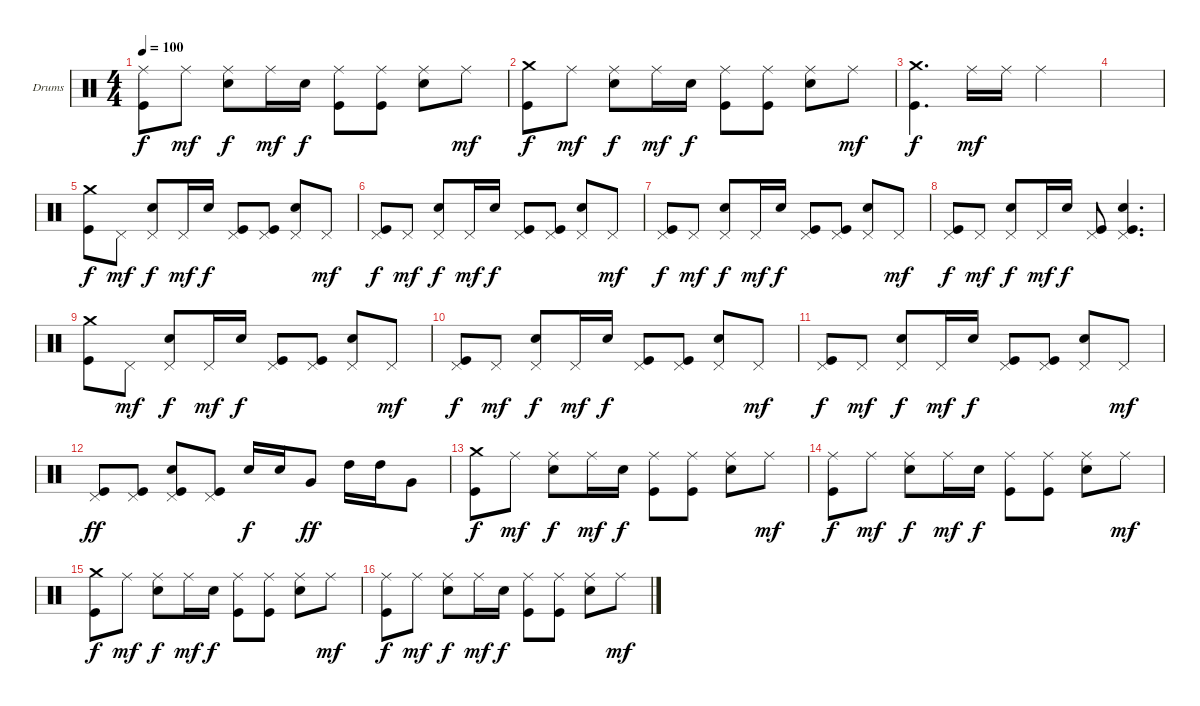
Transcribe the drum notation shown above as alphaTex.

\defaultSystemsLayout 4
\bracketExtendMode groupsimilarinstruments
\firstSystemTrackNameOrientation horizontal
\otherSystemsTrackNameOrientation horizontal
\track ("Drums" "Drums") {instrument percussion}
\staff {score}
\articulation defaults
\ts (4 4)
\tempo 100
\clef neutral
\ks c
("Kick (hit)" "Ride (middle)").8{dy f} "Ride (middle)".8{dy mf} ("Snare (hit) 2" "Ride (middle)").8{dy f} "Ride (middle)".16{dy mf} "Snare (hit) 2".16{dy f} ("Kick (hit)" "Ride (middle)").8 ("Kick (hit)" "Ride (middle)").8 ("Snare (hit) 2" "Ride (middle)").8 "Ride (middle)".8{dy mf} |
("Kick (hit)" "Crash medium (hit)").8{dy f} "Ride (middle)".8{dy mf} ("Snare (hit) 2" "Ride (middle)").8{dy f} "Ride (middle)".16{dy mf} "Snare (hit) 2".16{dy f} ("Kick (hit)" "Ride (middle)").8 ("Kick (hit)" "Ride (middle)").8 ("Snare (hit) 2" "Ride (middle)").8 "Ride (middle)".8{dy mf} |
("Kick (hit)" "Crash medium (hit)").4{d dy f} "Ride (middle)".16{dy mf} "Ride (middle)".16 "Ride (middle)".2 |
|
("Kick (hit)" "Crash medium (hit)").8{dy f} "Pedal Hi-Hat (hit)".8{dy mf} ("Snare (hit) 2" "Pedal Hi-Hat (hit)").8{dy f} "Pedal Hi-Hat (hit)".16{dy mf} "Snare (hit) 2".16{dy f} ("Kick (hit)" "Pedal Hi-Hat (hit)").8 ("Kick (hit)" "Pedal Hi-Hat (hit)").8 ("Snare (hit) 2" "Pedal Hi-Hat (hit)").8 "Pedal Hi-Hat (hit)".8{dy mf} |
("Kick (hit)" "Pedal Hi-Hat (hit)").8{dy f} "Pedal Hi-Hat (hit)".8{dy mf} ("Snare (hit) 2" "Pedal Hi-Hat (hit)").8{dy f} "Pedal Hi-Hat (hit)".16{dy mf} "Snare (hit) 2".16{dy f} ("Kick (hit)" "Pedal Hi-Hat (hit)").8 ("Kick (hit)" "Pedal Hi-Hat (hit)").8 ("Snare (hit) 2" "Pedal Hi-Hat (hit)").8 "Pedal Hi-Hat (hit)".8{dy mf} |
("Kick (hit)" "Pedal Hi-Hat (hit)").8{dy f} "Pedal Hi-Hat (hit)".8{dy mf} ("Snare (hit) 2" "Pedal Hi-Hat (hit)").8{dy f} "Pedal Hi-Hat (hit)".16{dy mf} "Snare (hit) 2".16{dy f} ("Kick (hit)" "Pedal Hi-Hat (hit)").8 ("Kick (hit)" "Pedal Hi-Hat (hit)").8 ("Snare (hit) 2" "Pedal Hi-Hat (hit)").8 "Pedal Hi-Hat (hit)".8{dy mf} |
("Kick (hit)" "Pedal Hi-Hat (hit)").8{dy f} "Pedal Hi-Hat (hit)".8{dy mf} ("Snare (hit) 2" "Pedal Hi-Hat (hit)").8{dy f} "Pedal Hi-Hat (hit)".16{dy mf} "Snare (hit) 2".16{dy f} ("Kick (hit)" "Pedal Hi-Hat (hit)").8 ("Kick (hit)" "Snare (hit) 2" "Pedal Hi-Hat (hit)").4{d} |
("Kick (hit)" "Crash medium (hit)").8 "Pedal Hi-Hat (hit)".8{dy mf} ("Snare (hit) 2" "Pedal Hi-Hat (hit)").8{dy f} "Pedal Hi-Hat (hit)".16{dy mf} "Snare (hit) 2".16{dy f} ("Kick (hit)" "Pedal Hi-Hat (hit)").8 ("Kick (hit)" "Pedal Hi-Hat (hit)").8 ("Snare (hit) 2" "Pedal Hi-Hat (hit)").8 "Pedal Hi-Hat (hit)".8{dy mf} |
("Kick (hit)" "Pedal Hi-Hat (hit)").8{dy f} "Pedal Hi-Hat (hit)".8{dy mf} ("Snare (hit) 2" "Pedal Hi-Hat (hit)").8{dy f} "Pedal Hi-Hat (hit)".16{dy mf} "Snare (hit) 2".16{dy f} ("Kick (hit)" "Pedal Hi-Hat (hit)").8 ("Kick (hit)" "Pedal Hi-Hat (hit)").8 ("Snare (hit) 2" "Pedal Hi-Hat (hit)").8 "Pedal Hi-Hat (hit)".8{dy mf} |
("Kick (hit)" "Pedal Hi-Hat (hit)").8{dy f} "Pedal Hi-Hat (hit)".8{dy mf} ("Snare (hit) 2" "Pedal Hi-Hat (hit)").8{dy f} "Pedal Hi-Hat (hit)".16{dy mf} "Snare (hit) 2".16{dy f} ("Kick (hit)" "Pedal Hi-Hat (hit)").8 ("Kick (hit)" "Pedal Hi-Hat (hit)").8 ("Snare (hit) 2" "Pedal Hi-Hat (hit)").8 "Pedal Hi-Hat (hit)".8{dy mf} |
("Kick (hit)" "Pedal Hi-Hat (hit)").8{dy ff} ("Kick (hit)" "Pedal Hi-Hat (hit)").8 ("Kick (hit)" "Snare (hit) 2" "Pedal Hi-Hat (hit)").8 ("Kick (hit)" "Pedal Hi-Hat (hit)").8 "Snare (hit) 2".16{dy f} "Snare (hit) 2".16 "Very Low Tom (hit)".8{dy ff} "High Tom (hit)".16 "High Tom (hit)".16 "Very Low Tom (hit)".8 |
("Kick (hit)" "Crash medium (hit)").8{dy f} "Ride (middle)".8{dy mf} ("Snare (hit) 2" "Ride (middle)").8{dy f} "Ride (middle)".16{dy mf} "Snare (hit) 2".16{dy f} ("Kick (hit)" "Ride (middle)").8 ("Kick (hit)" "Ride (middle)").8 ("Snare (hit) 2" "Ride (middle)").8 "Ride (middle)".8{dy mf} |
("Kick (hit)" "Ride (middle)").8{dy f} "Ride (middle)".8{dy mf} ("Snare (hit) 2" "Ride (middle)").8{dy f} "Ride (middle)".16{dy mf} "Snare (hit) 2".16{dy f} ("Kick (hit)" "Ride (middle)").8 ("Kick (hit)" "Ride (middle)").8 ("Snare (hit) 2" "Ride (middle)").8 "Ride (middle)".8{dy mf} |
("Kick (hit)" "Crash medium (hit)").8{dy f} "Ride (middle)".8{dy mf} ("Snare (hit) 2" "Ride (middle)").8{dy f} "Ride (middle)".16{dy mf} "Snare (hit) 2".16{dy f} ("Kick (hit)" "Ride (middle)").8 ("Kick (hit)" "Ride (middle)").8 ("Snare (hit) 2" "Ride (middle)").8 "Ride (middle)".8{dy mf} |
("Kick (hit)" "Ride (middle)").8{dy f} "Ride (middle)".8{dy mf} ("Snare (hit) 2" "Ride (middle)").8{dy f} "Ride (middle)".16{dy mf} "Snare (hit) 2".16{dy f} ("Kick (hit)" "Ride (middle)").8 ("Kick (hit)" "Ride (middle)").8 ("Snare (hit) 2" "Ride (middle)").8 "Ride (middle)".8{dy mf}
